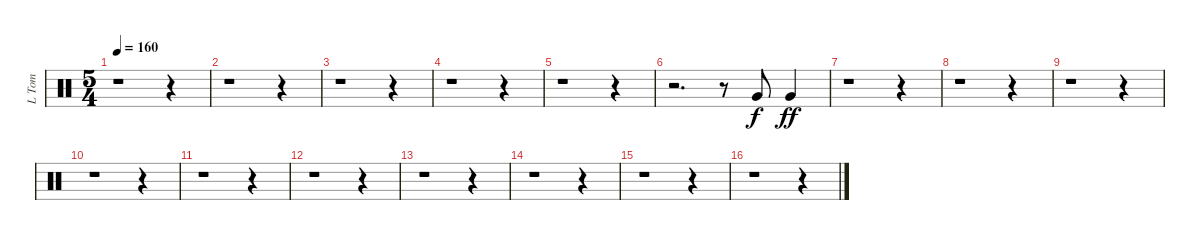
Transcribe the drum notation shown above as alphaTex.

\track ("L Tom" "L Tom") {instrument percussion}
\staff {score}
\articulation defaults
\ts (5 4)
\tempo 160
\clef neutral
\ks c
r.1{dy f} r.4 |
r.1 r.4 |
r.1 r.4 |
r.1 r.4 |
r.1 r.4 |
r.2{d} r.8 "Very Low Tom (hit)".8 "Very Low Tom (hit)".4{dy ff} |
r.1 r.4 |
r.1 r.4 |
r.1 r.4 |
r.1 r.4 |
r.1 r.4 |
r.1 r.4 |
r.1 r.4 |
r.1 r.4 |
r.1 r.4 |
r.1 r.4
